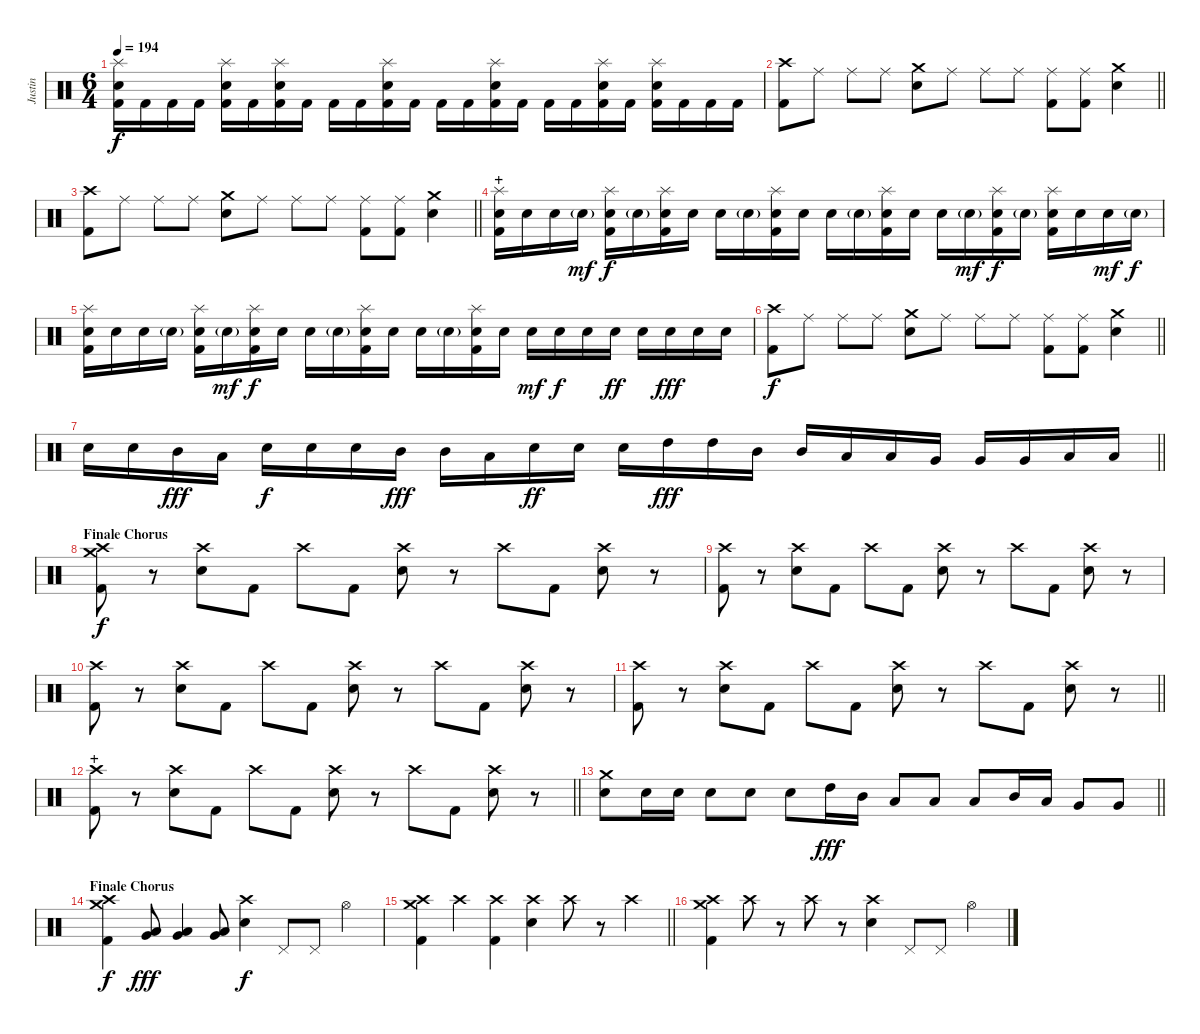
\track ("Justin" "Justin") {instrument percussion}
\staff {score}
\articulation defaults
\ts (6 4)
\tempo 194
\clef neutral
\ks c
("Splash (hit)" "Electric Snare (hit)" "Kick (hit) 2").16{dy f} "Kick (hit) 2".16 "Kick (hit) 2".16 "Kick (hit) 2".16 ("Splash (hit)" "Electric Snare (hit)" "Kick (hit) 2").16 "Kick (hit) 2".16 ("Splash (hit)" "Electric Snare (hit)" "Kick (hit) 2").16 "Kick (hit) 2".16 "Kick (hit) 2".16 "Kick (hit) 2".16 ("Splash (hit)" "Electric Snare (hit)" "Kick (hit) 2").16 "Kick (hit) 2".16 "Kick (hit) 2".16 "Kick (hit) 2".16 ("Splash (hit)" "Electric Snare (hit)" "Kick (hit) 2").16 "Kick (hit) 2".16 "Kick (hit) 2".16 "Kick (hit) 2".16 ("Splash (hit)" "Electric Snare (hit)" "Kick (hit) 2").16 "Kick (hit) 2".16 ("Splash (hit)" "Electric Snare (hit)" "Kick (hit) 2").16 "Kick (hit) 2".16 "Kick (hit) 2".16 "Kick (hit) 2".16 |
\barLineRight lightlight
("Crash high (hit)" "Kick (hit) 2").8 "Ride (middle)".8 "Ride (middle)".8 "Ride (middle)".8 ("Crash medium (hit)" "Electric Snare (hit)").8 "Ride (middle)".8 "Ride (middle)".8 "Ride (middle)".8 ("Ride (middle)" "Kick (hit) 2").8 ("Ride (middle)" "Kick (hit) 2").8 ("Crash medium (hit)" "Electric Snare (hit)").4 |
\barLineRight lightlight
("Crash high (hit)" "Kick (hit) 2").8 "Ride (middle)".8 "Ride (middle)".8 "Ride (middle)".8 ("Crash medium (hit)" "Electric Snare (hit)").8 "Ride (middle)".8 "Ride (middle)".8 "Ride (middle)".8 ("Ride (middle)" "Kick (hit) 2").8 ("Ride (middle)" "Kick (hit) 2").8 ("Crash medium (hit)" "Electric Snare (hit)").4 |
\section ("" "+")
("Splash (hit)" "Electric Snare (hit)" "Kick (hit) 2").16 "Electric Snare (hit)".16 "Electric Snare (hit)".16 "Electric Snare (hit)"{g}.16{dy mf} ("Splash (hit)" "Electric Snare (hit)" "Kick (hit) 2").16{dy f} "Electric Snare (hit)"{g}.16 ("Splash (hit)" "Electric Snare (hit)" "Kick (hit) 2").16 "Electric Snare (hit)".16 "Electric Snare (hit)".16 "Electric Snare (hit)"{g}.16 ("Splash (hit)" "Electric Snare (hit)" "Kick (hit) 2").16 "Electric Snare (hit)".16 "Electric Snare (hit)".16 "Electric Snare (hit)"{g}.16 ("Splash (hit)" "Electric Snare (hit)" "Kick (hit) 2").16 "Electric Snare (hit)".16 "Electric Snare (hit)".16 "Electric Snare (hit)"{g}.16{dy mf} ("Splash (hit)" "Electric Snare (hit)" "Kick (hit) 2").16{dy f} "Electric Snare (hit)"{g}.16 ("Splash (hit)" "Electric Snare (hit)" "Kick (hit) 2").16 "Electric Snare (hit)".16 "Electric Snare (hit)".16{dy mf} "Electric Snare (hit)"{g}.16{dy f} |
("Splash (hit)" "Electric Snare (hit)" "Kick (hit) 2").16 "Electric Snare (hit)".16 "Electric Snare (hit)".16 "Electric Snare (hit)"{g}.16 ("Splash (hit)" "Electric Snare (hit)" "Kick (hit) 2").16 "Electric Snare (hit)"{g}.16{dy mf} ("Splash (hit)" "Electric Snare (hit)" "Kick (hit) 2").16{dy f} "Electric Snare (hit)".16 "Electric Snare (hit)".16 "Electric Snare (hit)"{g}.16 ("Splash (hit)" "Electric Snare (hit)" "Kick (hit) 2").16 "Electric Snare (hit)".16 "Electric Snare (hit)".16 "Electric Snare (hit)"{g}.16 ("Splash (hit)" "Electric Snare (hit)" "Kick (hit) 2").16 "Electric Snare (hit)".16 "Electric Snare (hit)".16{dy mf} "Electric Snare (hit)".16{dy f} "Electric Snare (hit)".16 "Electric Snare (hit)".16{dy ff} "Electric Snare (hit)".16 "Electric Snare (hit)".16{dy fff} "Electric Snare (hit)".16 "Electric Snare (hit)".16 |
\barLineRight lightlight
("Crash high (hit)" "Kick (hit) 2").8{dy f} "Ride (middle)".8 "Ride (middle)".8 "Ride (middle)".8 ("Crash medium (hit)" "Electric Snare (hit)").8 "Ride (middle)".8 "Ride (middle)".8 "Ride (middle)".8 ("Ride (middle)" "Kick (hit) 2").8 ("Ride (middle)" "Kick (hit) 2").8 ("Crash medium (hit)" "Electric Snare (hit)").4 |
\barLineRight lightlight "Electric Snare (hit)".16 "Electric Snare (hit)".16 "Mid Tom (hit)".16{dy fff} "Low Tom (hit)".16 "Electric Snare (hit)".16{dy f} "Electric Snare (hit)".16 "Electric Snare (hit)".16 "Mid Tom (hit)".16{dy fff} "Mid Tom (hit)".16 "Low Tom (hit)".16 "Electric Snare (hit)".16{dy ff} "Electric Snare (hit)".16 "Electric Snare (hit)".16 "High Tom (hit)".16{dy fff} "High Tom (hit)".16 "Mid Tom (hit)".16 "Mid Tom (hit)".16 "Low Tom (hit)".16 "Low Tom (hit)".16 "Very Low Tom (hit)".16 "Very Low Tom (hit)".16 "Very Low Tom (hit)".16 "Low Floor Tom (hit)".16 "Low Floor Tom (hit)".16
|
\section ("" "Finale Chorus")
("Crash medium (hit)" "Crash high (hit)" "Kick (hit) 2").8{dy f} r.8 ("Crash high (hit)" "Electric Snare (hit)").8 "Kick (hit) 2".8 "Crash high (hit)".8 "Kick (hit) 2".8 ("Crash high (hit)" "Electric Snare (hit)").8 r.8 "Crash high (hit)".8 "Kick (hit) 2".8 ("Crash high (hit)" "Electric Snare (hit)").8 r.8 |
("Crash high (hit)" "Kick (hit) 2").8 r.8 ("Crash high (hit)" "Electric Snare (hit)").8 "Kick (hit) 2".8 "Crash high (hit)".8 "Kick (hit) 2".8 ("Crash high (hit)" "Electric Snare (hit)").8 r.8 "Crash high (hit)".8 "Kick (hit) 2".8 ("Crash high (hit)" "Electric Snare (hit)").8 r.8 |
("Crash high (hit)" "Kick (hit) 2").8 r.8 ("Crash high (hit)" "Electric Snare (hit)").8 "Kick (hit) 2".8 "Crash high (hit)".8 "Kick (hit) 2".8 ("Crash high (hit)" "Electric Snare (hit)").8 r.8 "Crash high (hit)".8 "Kick (hit) 2".8 ("Crash high (hit)" "Electric Snare (hit)").8 r.8 |
\barLineRight lightlight
("Crash high (hit)" "Kick (hit) 2").8 r.8 ("Crash high (hit)" "Electric Snare (hit)").8 "Kick (hit) 2".8 "Crash high (hit)".8 "Kick (hit) 2".8 ("Crash high (hit)" "Electric Snare (hit)").8 r.8 "Crash high (hit)".8 "Kick (hit) 2".8 ("Crash high (hit)" "Electric Snare (hit)").8 r.8 |
\section ("" "+")
\barLineRight lightlight
("Crash high (hit)" "Kick (hit) 2").8 r.8 ("Crash high (hit)" "Electric Snare (hit)").8 "Kick (hit) 2".8 "Crash high (hit)".8 "Kick (hit) 2".8 ("Crash high (hit)" "Electric Snare (hit)").8 r.8 "Crash high (hit)".8 "Kick (hit) 2".8 ("Crash high (hit)" "Electric Snare (hit)").8 r.8 |
\barLineRight lightlight
("Crash medium (hit)" "Electric Snare (hit)").8 "Electric Snare (hit)".16 "Electric Snare (hit)".16 "Electric Snare (hit)".8 "Electric Snare (hit)".8 "Electric Snare (hit)".8 "High Tom (hit)".16{dy fff} "Mid Tom (hit)".16 "Low Tom (hit)".8 "Low Tom (hit)".8 "Low Tom (hit)".8 "Mid Tom (hit)".16 "Low Tom (hit)".16 "Very Low Tom (hit)".8 "Very Low Tom (hit)".8 |
\section ("" "Finale Chorus")
("Crash medium (hit)" "Crash high (hit)" "Kick (hit) 2").4{dy f} ("Low Tom (hit)" "Very Low Tom (hit)").8{dy fff} ("Low Tom (hit)" "Very Low Tom (hit)").4 ("Low Tom (hit)" "Very Low Tom (hit)").8 ("Crash high (hit)" "Electric Snare (hit)").4{dy f} "Pedal Hi-Hat (hit)".8 "Pedal Hi-Hat (hit)".8 "Hi-Hat (open)".4 |
\barLineRight lightlight
("Crash medium (hit)" "Crash high (hit)" "Kick (hit) 2").4 "Crash high (hit)".4 ("Crash high (hit)" "Kick (hit) 2").4 ("Crash high (hit)" "Electric Snare (hit)").4 "Crash high (hit)".8 r.8 "Crash high (hit)".4 |
("Crash medium (hit)" "Crash high (hit)" "Kick (hit) 2").4 "Crash high (hit)".8 r.8 "Crash high (hit)".8 r.8 ("Crash high (hit)" "Electric Snare (hit)").4 "Pedal Hi-Hat (hit)".8 "Pedal Hi-Hat (hit)".8 "Hi-Hat (open)".4
